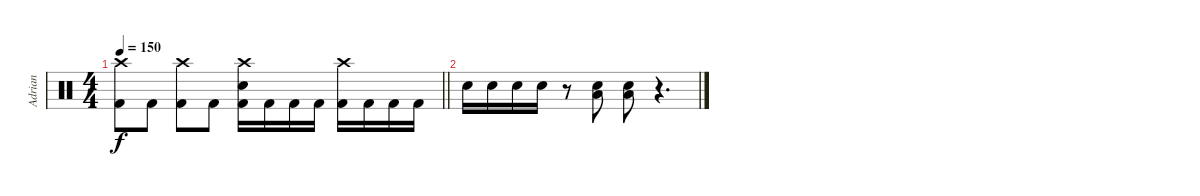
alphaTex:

\track ("Adrian" "Adrian") {instrument percussion}
\staff {score}
\articulation defaults
\ts (4 4)
\tempo 150
\clef neutral
\barLineRight lightlight
\ks c
("Crash high (hit)" "Kick (hit) 2").8{dy f} "Kick (hit) 2".8 ("Crash high (hit)" "Kick (hit) 2").8 "Kick (hit) 2".8 ("Crash high (hit)" "Snare (hit) 2" "Kick (hit) 2").16 "Kick (hit) 2".16 "Kick (hit) 2".16 "Kick (hit) 2".16 ("Crash high (hit)" "Kick (hit) 2").16 "Kick (hit) 2".16 "Kick (hit) 2".16 "Kick (hit) 2".16 |
"Snare (hit) 2".16 "Snare (hit) 2".16 "Snare (hit) 2".16 "Snare (hit) 2".16 r.8 ("Low Floor Tom (hit)" "Snare (hit) 2").8 ("Low Floor Tom (hit)" "Snare (hit) 2").8 r.4{d}
